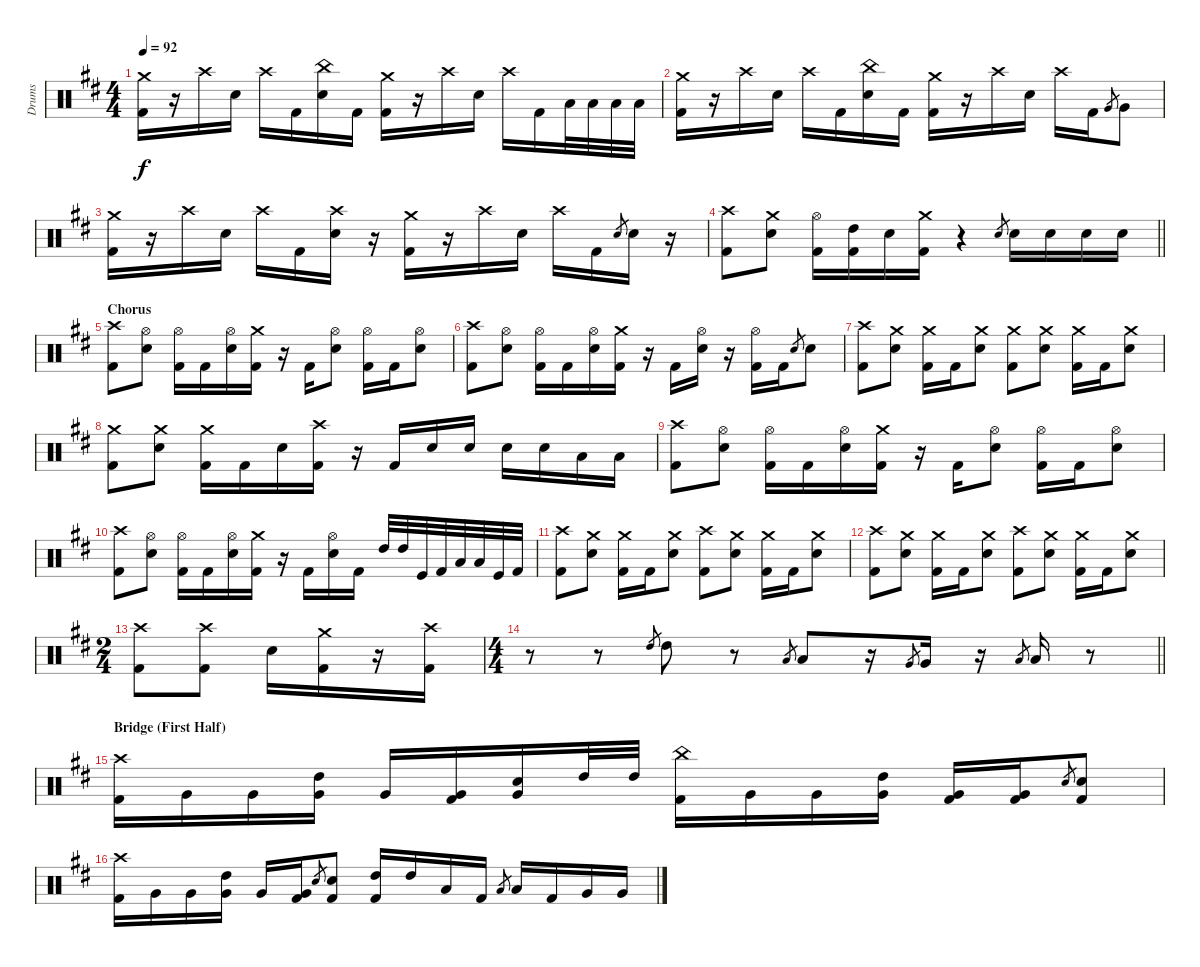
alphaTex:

\track ("Drums" "Drums") {instrument percussion}
\staff {score}
\articulation defaults
\ts (4 4)
\tempo 92
\clef neutral
\ks d
("Crash medium (hit)" "Kick (hit) 2").16{dy f} r.16 "Crash high (hit)".16 "Snare (hit) 2".16 "Crash high (hit)".16 "Kick (hit) 2".16 ("China (hit)" "Snare (hit) 2").16 "Kick (hit) 2".16 ("Crash medium (hit)" "Kick (hit) 2").16 r.16 "Crash high (hit)".16 "Snare (hit) 2".16 "Crash high (hit)".16 "Kick (hit) 2".16 "Low Tom (hit)".32 "Low Tom (hit)".32 "Low Tom (hit)".32 "Low Tom (hit)".32 |
("Crash medium (hit)" "Kick (hit) 2").16 r.16 "Crash high (hit)".16 "Snare (hit) 2".16 "Crash high (hit)".16 "Kick (hit) 2".16 ("China (hit)" "Snare (hit) 2").16 "Kick (hit) 2".16 ("Crash medium (hit)" "Kick (hit) 2").16 r.16 "Crash high (hit)".16 "Snare (hit) 2".16 "Crash high (hit)".16 "Kick (hit) 2".16 "Very Low Tom (hit)".8{gr} "Very Low Tom (hit)".8 |
("Crash medium (hit)" "Kick (hit) 2").16 r.16 "Crash high (hit)".16 "Snare (hit) 2".16 "Crash high (hit)".16 "Kick (hit) 2".16 ("Crash high (hit)" "Snare (hit) 2").16 r.16 ("Crash medium (hit)" "Kick (hit) 2").16 r.16 "Crash high (hit)".16 "Snare (hit) 2".16 "Crash high (hit)".16 "Kick (hit) 2".16 "Snare (hit) 2".8{gr} "Snare (hit) 2".16 r.16 |
\barLineRight lightlight
("Crash high (hit)" "Kick (hit) 2").8 ("Crash medium (hit)" "Snare (hit) 2").8 ("Hi-Hat (open)" "Kick (hit) 2").16 ("High Tom (hit)" "Kick (hit) 2").16 "Snare (hit) 2".16 ("Crash medium (hit)" "Kick (hit) 2").16 r.4 "Snare (hit) 2".8{gr} "Snare (hit) 2".16 "Snare (hit) 2".16 "Snare (hit) 2".16 "Snare (hit) 2".16 |
\section ("" "Chorus")
("Crash high (hit)" "Kick (hit) 2").8 ("Hi-Hat (open)" "Snare (hit) 2").8 ("Hi-Hat (open)" "Kick (hit) 2").16 "Kick (hit) 2".16 ("Hi-Hat (open)" "Snare (hit) 2").16 ("Crash medium (hit)" "Kick (hit) 2").16 r.16 "Kick (hit) 2".16 ("Hi-Hat (open)" "Snare (hit) 2").8 ("Hi-Hat (open)" "Kick (hit) 2").16 "Kick (hit) 2".16 ("Hi-Hat (open)" "Snare (hit) 2").8 |
("Crash high (hit)" "Kick (hit) 2").8 ("Hi-Hat (open)" "Snare (hit) 2").8 ("Hi-Hat (open)" "Kick (hit) 2").16 "Kick (hit) 2".16 ("Hi-Hat (open)" "Snare (hit) 2").16 ("Crash medium (hit)" "Kick (hit) 2").16 r.16 "Kick (hit) 2".16 ("Hi-Hat (open)" "Snare (hit) 2").16 r.16 ("Hi-Hat (open)" "Kick (hit) 2").16 "Kick (hit) 2".16 "Snare (hit) 2".8{gr} "Snare (hit) 2".8 |
("Crash high (hit)" "Kick (hit) 2").8 ("Crash medium (hit)" "Snare (hit) 2").8 ("Crash medium (hit)" "Kick (hit) 2").16 "Kick (hit) 2".16 ("Crash medium (hit)" "Snare (hit) 2").8 ("Crash medium (hit)" "Kick (hit) 2").8 ("Crash medium (hit)" "Snare (hit) 2").8 ("Crash medium (hit)" "Kick (hit) 2").16 "Kick (hit) 2".16 ("Crash medium (hit)" "Snare (hit) 2").8 |
("Crash medium (hit)" "Kick (hit) 2").8 ("Crash medium (hit)" "Snare (hit) 2").8 ("Crash medium (hit)" "Kick (hit) 2").16 "Kick (hit) 2".16 "Snare (hit) 2".16 ("Crash high (hit)" "Kick (hit) 2").16 r.16 "Kick (hit) 2".16 "Snare (hit) 2".16 "Snare (hit) 2".16 "Snare (hit) 2".16 "Snare (hit) 2".16 "Low Tom (hit)".16 "Low Tom (hit)".16 |
("Crash high (hit)" "Kick (hit) 2").8 ("Hi-Hat (open)" "Snare (hit) 2").8 ("Hi-Hat (open)" "Kick (hit) 2").16 "Kick (hit) 2".16 ("Hi-Hat (open)" "Snare (hit) 2").16 ("Crash medium (hit)" "Kick (hit) 2").16 r.16 "Kick (hit) 2".16 ("Hi-Hat (open)" "Snare (hit) 2").8 ("Hi-Hat (open)" "Kick (hit) 2").16 "Kick (hit) 2".16 ("Hi-Hat (open)" "Snare (hit) 2").8 |
("Crash high (hit)" "Kick (hit) 2").8 ("Hi-Hat (open)" "Snare (hit) 2").8 ("Hi-Hat (open)" "Kick (hit) 2").16 "Kick (hit) 2".16 ("Hi-Hat (open)" "Snare (hit) 2").16 ("Crash medium (hit)" "Kick (hit) 2").16 r.16 "Kick (hit) 2".16 ("Hi-Hat (open)" "Snare (hit) 2").16 "Kick (hit) 2".16 "High Tom (hit)".32 "High Tom (hit)".32 "Kick (hit)".32 "Kick (hit) 2".32 "Low Tom (hit)".32 "Low Tom (hit)".32 "Kick (hit)".32 "Kick (hit) 2".32 |
("Crash high (hit)" "Kick (hit) 2").8 ("Crash medium (hit)" "Snare (hit) 2").8 ("Crash medium (hit)" "Kick (hit) 2").16 "Kick (hit) 2".16 ("Crash medium (hit)" "Snare (hit) 2").8 ("Crash high (hit)" "Kick (hit) 2").8 ("Crash medium (hit)" "Snare (hit) 2").8 ("Crash medium (hit)" "Kick (hit) 2").16 "Kick (hit) 2".16 ("Crash medium (hit)" "Snare (hit) 2").8 |
("Crash high (hit)" "Kick (hit) 2").8 ("Crash medium (hit)" "Snare (hit) 2").8 ("Crash medium (hit)" "Kick (hit) 2").16 "Kick (hit) 2".16 ("Crash medium (hit)" "Snare (hit) 2").8 ("Crash high (hit)" "Kick (hit) 2").8 ("Crash medium (hit)" "Snare (hit) 2").8 ("Crash medium (hit)" "Kick (hit) 2").16 "Kick (hit) 2".16 ("Crash medium (hit)" "Snare (hit) 2").8 |
\ts (2 4)
("Crash high (hit)" "Kick (hit) 2").8 ("Crash high (hit)" "Kick (hit) 2").8 "Snare (hit) 2".16 ("Crash medium (hit)" "Kick (hit) 2").16 r.16 ("Crash high (hit)" "Kick (hit) 2").16 |
\ts (4 4)
\barLineRight lightlight
r.8 r.8 "High Tom (hit)".8{gr} "High Tom (hit)".8 r.8 "Low Tom (hit)".8{gr} "Low Tom (hit)".8 r.16 "Very Low Tom (hit)".8{gr} "Very Low Tom (hit)".16 r.16 "Low Floor Tom (hit)".8{gr} "Low Floor Tom (hit)".16 r.8 |
\section ("" "Bridge (First Half)")
("Crash high (hit)" "Kick (hit) 2").16 "Very Low Tom (hit)".16 "Very Low Tom (hit)".16 ("High Tom (hit)" "Very Low Tom (hit)").16 "Very Low Tom (hit)".16 ("Kick (hit) 2" "Very Low Tom (hit)").16 ("Snare (hit) 2" "Very Low Tom (hit)").16 "High Tom (hit)".32 "High Tom (hit)".32 ("China (hit)" "Kick (hit) 2").16 "Very Low Tom (hit)".16 "Very Low Tom (hit)".16 ("High Tom (hit)" "Very Low Tom (hit)").16 ("Kick (hit) 2" "Very Low Tom (hit)").16 ("Kick (hit) 2" "Very Low Tom (hit)").16 "Snare (hit) 2".8{gr} ("Snare (hit) 2" "Kick (hit) 2").8 |
("Crash high (hit)" "Kick (hit) 2").16 "Very Low Tom (hit)".16 "Very Low Tom (hit)".16 ("High Tom (hit)" "Very Low Tom (hit)").16 "Very Low Tom (hit)".16 ("Kick (hit) 2" "Very Low Tom (hit)").16 "Snare (hit) 2".8{gr} ("Snare (hit) 2" "Kick (hit) 2").8 ("Kick (hit) 2" "High Tom (hit)").16 "High Tom (hit)".16 "Low Tom (hit)".16 "Kick (hit) 2".16 "Low Tom (hit)".8{gr} "Low Tom (hit)".16 "Kick (hit) 2".16 "Very Low Tom (hit)".16 "Very Low Tom (hit)".16
